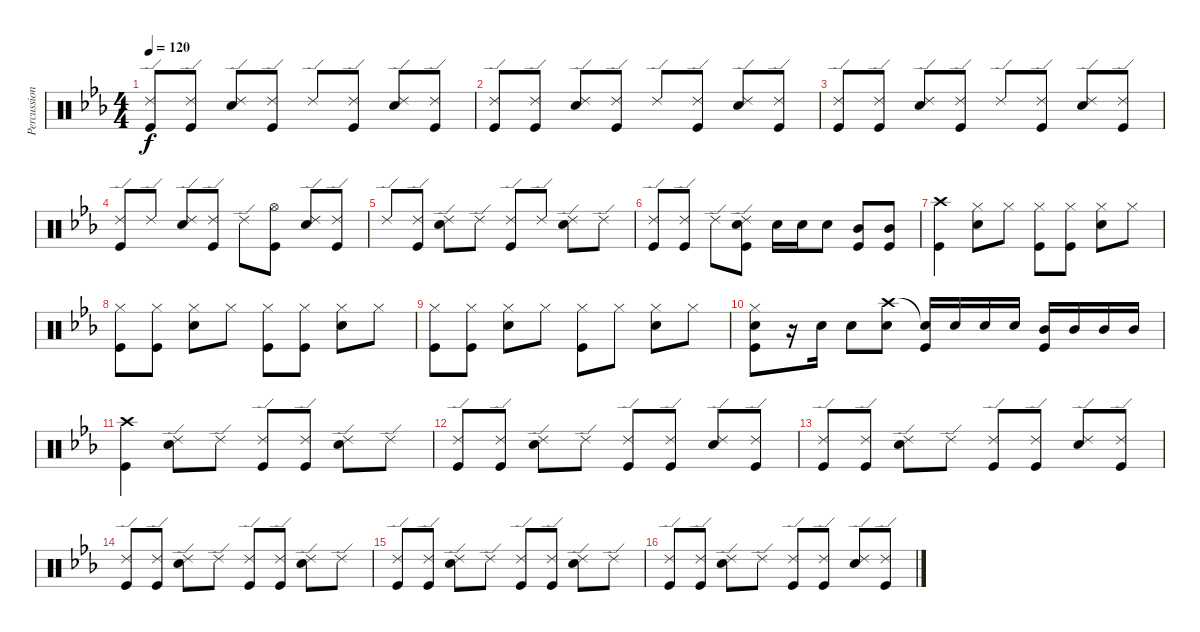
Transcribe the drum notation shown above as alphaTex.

\track ("Percussion" "Percussion") {instrument percussion}
\staff {score}
\articulation defaults
\ts (4 4)
\tempo 120
\clef neutral
\ks eb
("Ride (edge) 2" "Kick (hit)").8{dy f} ("Ride (edge) 2" "Kick (hit)").8 ("Ride (edge) 2" "Snare (hit) 2").8 ("Ride (edge) 2" "Kick (hit)").8 "Ride (edge) 2".8 ("Ride (edge) 2" "Kick (hit)").8 ("Ride (edge) 2" "Snare (hit) 2").8 ("Ride (edge) 2" "Kick (hit)").8 |
("Ride (edge) 2" "Kick (hit)").8 ("Ride (edge) 2" "Kick (hit)").8 ("Ride (edge) 2" "Snare (hit) 2").8 ("Ride (edge) 2" "Kick (hit)").8 "Ride (edge) 2".8 ("Ride (edge) 2" "Kick (hit)").8 ("Ride (edge) 2" "Snare (hit) 2").8 ("Ride (edge) 2" "Kick (hit)").8 |
("Ride (edge) 2" "Kick (hit)").8 ("Ride (edge) 2" "Kick (hit)").8 ("Ride (edge) 2" "Snare (hit) 2").8 ("Ride (edge) 2" "Kick (hit)").8 "Ride (edge) 2".8 ("Ride (edge) 2" "Kick (hit)").8 ("Ride (edge) 2" "Snare (hit) 2").8 ("Ride (edge) 2" "Kick (hit)").8 |
("Ride (edge) 2" "Kick (hit)").8 "Ride (edge) 2".8 ("Ride (edge) 2" "Snare (hit) 2").8 ("Ride (edge) 2" "Kick (hit)").8 "Ride (edge) 2".8 ("Hi-Hat (open)" "Kick (hit)").8 ("Ride (edge) 2" "Snare (hit) 2").8 ("Ride (edge) 2" "Kick (hit)").8 |
"Ride (edge) 2".8 ("Ride (edge) 2" "Kick (hit)").8 ("Ride (edge) 2" "Snare (hit) 2").8 "Ride (edge) 2".8 ("Ride (edge) 2" "Kick (hit)").8 "Ride (edge) 2".8 ("Ride (edge) 2" "Snare (hit) 2").8 "Ride (edge) 2".8 |
("Ride (edge) 2" "Kick (hit)").8 ("Ride (edge) 2" "Kick (hit)").8 "Ride (edge) 2".8 ("Ride (edge) 2" "Snare (hit) 2" "Kick (hit)").8 "Snare (hit) 2".16 "Snare (hit) 2".16 "Snare (hit) 2".8 ("Mid Tom (hit)" "Kick (hit)").8 ("Mid Tom (hit)" "Kick (hit)").8 |
("Crash high (hit)" "Kick (hit)").4 ("Hi-Hat (closed)" "Snare (hit) 2").8 "Hi-Hat (closed)".8 ("Hi-Hat (closed)" "Kick (hit)").8 ("Hi-Hat (closed)" "Kick (hit)").8 ("Hi-Hat (closed)" "Snare (hit) 2").8 "Hi-Hat (closed)".8 |
("Hi-Hat (closed)" "Kick (hit)").8 ("Hi-Hat (closed)" "Kick (hit)").8 ("Hi-Hat (closed)" "Snare (hit) 2").8 "Hi-Hat (closed)".8 ("Hi-Hat (closed)" "Kick (hit)").8 ("Hi-Hat (closed)" "Kick (hit)").8 ("Hi-Hat (closed)" "Snare (hit) 2").8 "Hi-Hat (closed)".8 |
("Hi-Hat (closed)" "Kick (hit)").8 ("Hi-Hat (closed)" "Kick (hit)").8 ("Hi-Hat (closed)" "Snare (hit) 2").8 "Hi-Hat (closed)".8 ("Hi-Hat (closed)" "Kick (hit)").8 "Hi-Hat (closed)".8 ("Hi-Hat (closed)" "Snare (hit) 2").8 "Hi-Hat (closed)".8 |
("Hi-Hat (closed)" "Snare (hit) 2" "Kick (hit)").8 r.16 "Snare (hit) 2".16 "Snare (hit) 2".8 ("Crash high (hit)" "Snare (hit) 2").8 ("Snare (hit)"{t} "Kick (hit)").16 "Snare (hit) 2".16 "Snare (hit) 2".16 "Snare (hit) 2".16 ("Mid Tom (hit)" "Kick (hit)").16 "Mid Tom (hit)".16 "Mid Tom (hit)".16 "Mid Tom (hit)".16 |
("Crash high (hit)" "Kick (hit)").4 ("Ride (edge) 2" "Snare (hit) 2").8 "Ride (edge) 2".8 ("Ride (edge) 2" "Kick (hit)").8 ("Ride (edge) 2" "Kick (hit)").8 ("Ride (edge) 2" "Snare (hit) 2").8 "Ride (edge) 2".8 |
("Ride (edge) 2" "Kick (hit)").8 ("Ride (edge) 2" "Kick (hit)").8 ("Ride (edge) 2" "Snare (hit) 2").8 "Ride (edge) 2".8 ("Ride (edge) 2" "Kick (hit)").8 ("Ride (edge) 2" "Kick (hit)").8 ("Ride (edge) 2" "Snare (hit) 2").8 ("Ride (edge) 2" "Kick (hit)").8 |
("Ride (edge) 2" "Kick (hit)").8 ("Ride (edge) 2" "Kick (hit)").8 ("Ride (edge) 2" "Snare (hit) 2").8 "Ride (edge) 2".8 ("Ride (edge) 2" "Kick (hit)").8 ("Ride (edge) 2" "Kick (hit)").8 ("Ride (edge) 2" "Snare (hit) 2").8 ("Ride (edge) 2" "Kick (hit)").8 |
("Ride (edge) 2" "Kick (hit)").8 ("Ride (edge) 2" "Kick (hit)").8 ("Ride (edge) 2" "Snare (hit) 2").8 "Ride (edge) 2".8 ("Ride (edge) 2" "Kick (hit)").8 ("Ride (edge) 2" "Kick (hit)").8 ("Ride (edge) 2" "Snare (hit) 2").8 "Ride (edge) 2".8 |
("Ride (edge) 2" "Kick (hit)").8 ("Ride (edge) 2" "Kick (hit)").8 ("Ride (edge) 2" "Snare (hit) 2").8 "Ride (edge) 2".8 ("Ride (edge) 2" "Kick (hit)").8 ("Ride (edge) 2" "Kick (hit)").8 ("Ride (edge) 2" "Snare (hit) 2").8 "Ride (edge) 2".8 |
("Ride (edge) 2" "Kick (hit)").8 ("Ride (edge) 2" "Kick (hit)").8 ("Ride (edge) 2" "Snare (hit) 2").8 "Ride (edge) 2".8 ("Ride (edge) 2" "Kick (hit)").8 ("Ride (edge) 2" "Kick (hit)").8 ("Ride (edge) 2" "Snare (hit) 2").8 ("Ride (edge) 2" "Kick (hit)").8
